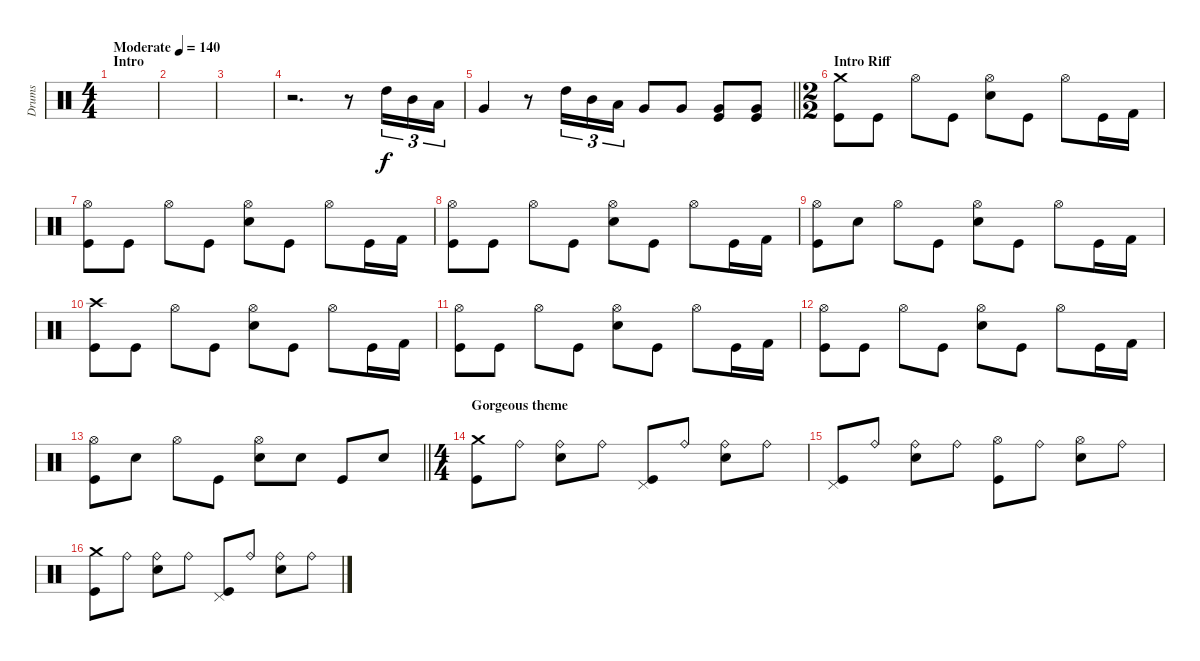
\track ("Drums" "Drums") {instrument percussion}
\staff {score}
\articulation defaults
\ts (4 4)
\section ("" "Intro")
\tempo (140 "Moderate")
\clef neutral
\ks c
|
|
|
r.2{d} r.8 "High Tom (hit)".16{tu (3 2)} "Mid Tom (hit)".16{tu (3 2)} "Low Tom (hit)".16{tu (3 2)} |
\barLineRight lightlight "Very Low Tom (hit)".4
r.8 "High Tom (hit)".16{tu (3 2)} "Mid Tom (hit)".16{tu (3 2)} "Low Tom (hit)".16{tu (3 2)} "Very Low Tom (hit)".8 "Very Low Tom (hit)".8 ("Very Low Tom (hit)" "Kick (hit)").8 ("Very Low Tom (hit)" "Kick (hit)").8 |
\ts (2 2)
\section ("" "Intro Riff")
("Crash medium (hit)" "Kick (hit)").8 "Kick (hit)".8 "Hi-Hat (open)".8 "Kick (hit)".8 ("Hi-Hat (open)" "Snare (hit) 2").8 "Kick (hit)".8 "Hi-Hat (open)".8 "Kick (hit)".16 "Kick (hit) 2".16 |
("Hi-Hat (open)" "Kick (hit)").8 "Kick (hit)".8 "Hi-Hat (open)".8 "Kick (hit)".8 ("Hi-Hat (open)" "Snare (hit) 2").8 "Kick (hit)".8 "Hi-Hat (open)".8 "Kick (hit)".16 "Kick (hit) 2".16 |
("Hi-Hat (open)" "Kick (hit)").8 "Kick (hit)".8 "Hi-Hat (open)".8 "Kick (hit)".8 ("Hi-Hat (open)" "Snare (hit) 2").8 "Kick (hit)".8 "Hi-Hat (open)".8 "Kick (hit)".16 "Kick (hit) 2".16 |
("Hi-Hat (open)" "Kick (hit)").8 "Snare (hit) 2".8 "Hi-Hat (open)".8 "Kick (hit)".8 ("Hi-Hat (open)" "Snare (hit) 2").8 "Kick (hit)".8 "Hi-Hat (open)".8 "Kick (hit)".16 "Kick (hit) 2".16 |
("Crash high (hit)" "Kick (hit)").8 "Kick (hit)".8 "Hi-Hat (open)".8 "Kick (hit)".8 ("Hi-Hat (open)" "Snare (hit) 2").8 "Kick (hit)".8 "Hi-Hat (open)".8 "Kick (hit)".16 "Kick (hit) 2".16 |
("Hi-Hat (open)" "Kick (hit)").8 "Kick (hit)".8 "Hi-Hat (open)".8 "Kick (hit)".8 ("Hi-Hat (open)" "Snare (hit) 2").8 "Kick (hit)".8 "Hi-Hat (open)".8 "Kick (hit)".16 "Kick (hit) 2".16 |
("Hi-Hat (open)" "Kick (hit)").8 "Kick (hit)".8 "Hi-Hat (open)".8 "Kick (hit)".8 ("Hi-Hat (open)" "Snare (hit) 2").8 "Kick (hit)".8 "Hi-Hat (open)".8 "Kick (hit)".16 "Kick (hit) 2".16 |
\barLineRight lightlight
("Hi-Hat (open)" "Kick (hit)").8 "Snare (hit) 2".8 "Hi-Hat (open)".8 "Kick (hit)".8 ("Hi-Hat (open)" "Snare (hit) 2").8 "Snare (hit) 2".8 "Kick (hit)".8 "Snare (hit) 2".8 |
\ts (4 4)
\section ("" "Gorgeous theme")
("Crash medium (hit)" "Kick (hit)").8 "Ride (bell)".8 ("Ride (bell)" "Snare (hit) 2").8 "Ride (bell)".8 ("Pedal Hi-Hat (hit)" "Kick (hit)").8 "Ride (bell)".8 ("Ride (bell)" "Snare (hit) 2").8 "Ride (bell)".8 |
("Pedal Hi-Hat (hit)" "Kick (hit)").8 "Ride (bell)".8 ("Ride (bell)" "Snare (hit) 2").8 "Ride (bell)".8 ("Hi-Hat (open)" "Kick (hit)").8 "Ride (bell)".8 ("Hi-Hat (open)" "Snare (hit) 2").8 "Ride (bell)".8 |
("Crash medium (hit)" "Kick (hit)").8 "Ride (bell)".8 ("Ride (bell)" "Snare (hit) 2").8 "Ride (bell)".8 ("Pedal Hi-Hat (hit)" "Kick (hit)").8 "Ride (bell)".8 ("Ride (bell)" "Snare (hit) 2").8 "Ride (bell)".8
